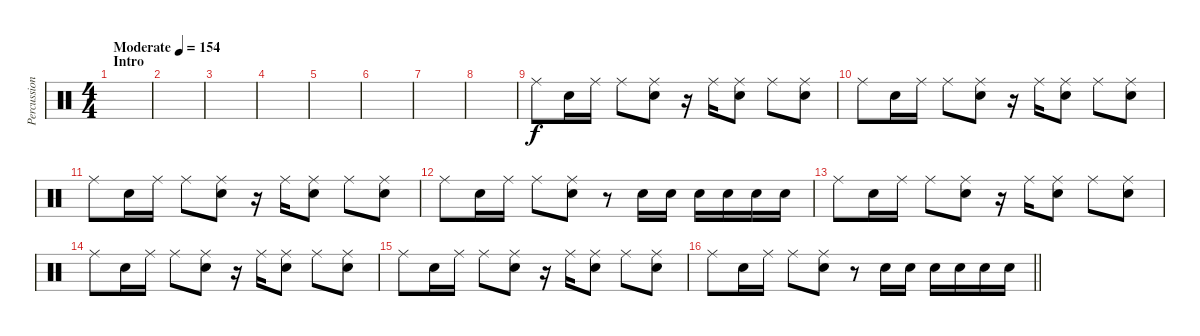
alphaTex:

\track ("Percussion" "Percussion") {instrument percussion}
\staff {score}
\articulation defaults
\ts (4 4)
\section ("" "Intro")
\tempo (154 "Moderate")
\clef neutral
\ks c
|
|
|
|
|
|
|
|
"Ride (middle)".8 "Snare (hit) 2".16 "Ride (middle)".16 "Ride (middle)".8 ("Ride (middle)" "Snare (hit) 2").8 r.16 "Ride (middle)".16 ("Ride (middle)" "Snare (hit) 2").8 "Ride (middle)".8 ("Ride (middle)" "Snare (hit) 2").8 |
"Ride (middle)".8 "Snare (hit) 2".16 "Ride (middle)".16 "Ride (middle)".8 ("Ride (middle)" "Snare (hit) 2").8 r.16 "Ride (middle)".16 ("Ride (middle)" "Snare (hit) 2").8 "Ride (middle)".8 ("Ride (middle)" "Snare (hit) 2").8 |
"Ride (middle)".8 "Snare (hit) 2".16 "Ride (middle)".16 "Ride (middle)".8 ("Ride (middle)" "Snare (hit) 2").8 r.16 "Ride (middle)".16 ("Ride (middle)" "Snare (hit) 2").8 "Ride (middle)".8 ("Ride (middle)" "Snare (hit) 2").8 |
"Ride (middle)".8 "Snare (hit) 2".16 "Ride (middle)".16 "Ride (middle)".8 ("Ride (middle)" "Snare (hit) 2").8 r.8 "Snare (hit) 2".16 "Snare (hit) 2".16 "Snare (hit) 2".16 "Snare (hit) 2".16 "Snare (hit) 2".16 "Snare (hit) 2".16 |
"Ride (middle)".8 "Snare (hit) 2".16 "Ride (middle)".16 "Ride (middle)".8 ("Ride (middle)" "Snare (hit) 2").8 r.16 "Ride (middle)".16 ("Ride (middle)" "Snare (hit) 2").8 "Ride (middle)".8 ("Ride (middle)" "Snare (hit) 2").8 |
"Ride (middle)".8 "Snare (hit) 2".16 "Ride (middle)".16 "Ride (middle)".8 ("Ride (middle)" "Snare (hit) 2").8 r.16 "Ride (middle)".16 ("Ride (middle)" "Snare (hit) 2").8 "Ride (middle)".8 ("Ride (middle)" "Snare (hit) 2").8 |
"Ride (middle)".8 "Snare (hit) 2".16 "Ride (middle)".16 "Ride (middle)".8 ("Ride (middle)" "Snare (hit) 2").8 r.16 "Ride (middle)".16 ("Ride (middle)" "Snare (hit) 2").8 "Ride (middle)".8 ("Ride (middle)" "Snare (hit) 2").8 |
\barLineRight lightlight "Ride (middle)".8 "Snare (hit) 2".16 "Ride (middle)".16 "Ride (middle)".8
("Ride (middle)" "Snare (hit) 2").8 r.8 "Snare (hit) 2".16 "Snare (hit) 2".16 "Snare (hit) 2".16 "Snare (hit) 2".16 "Snare (hit) 2".16 "Snare (hit) 2".16
